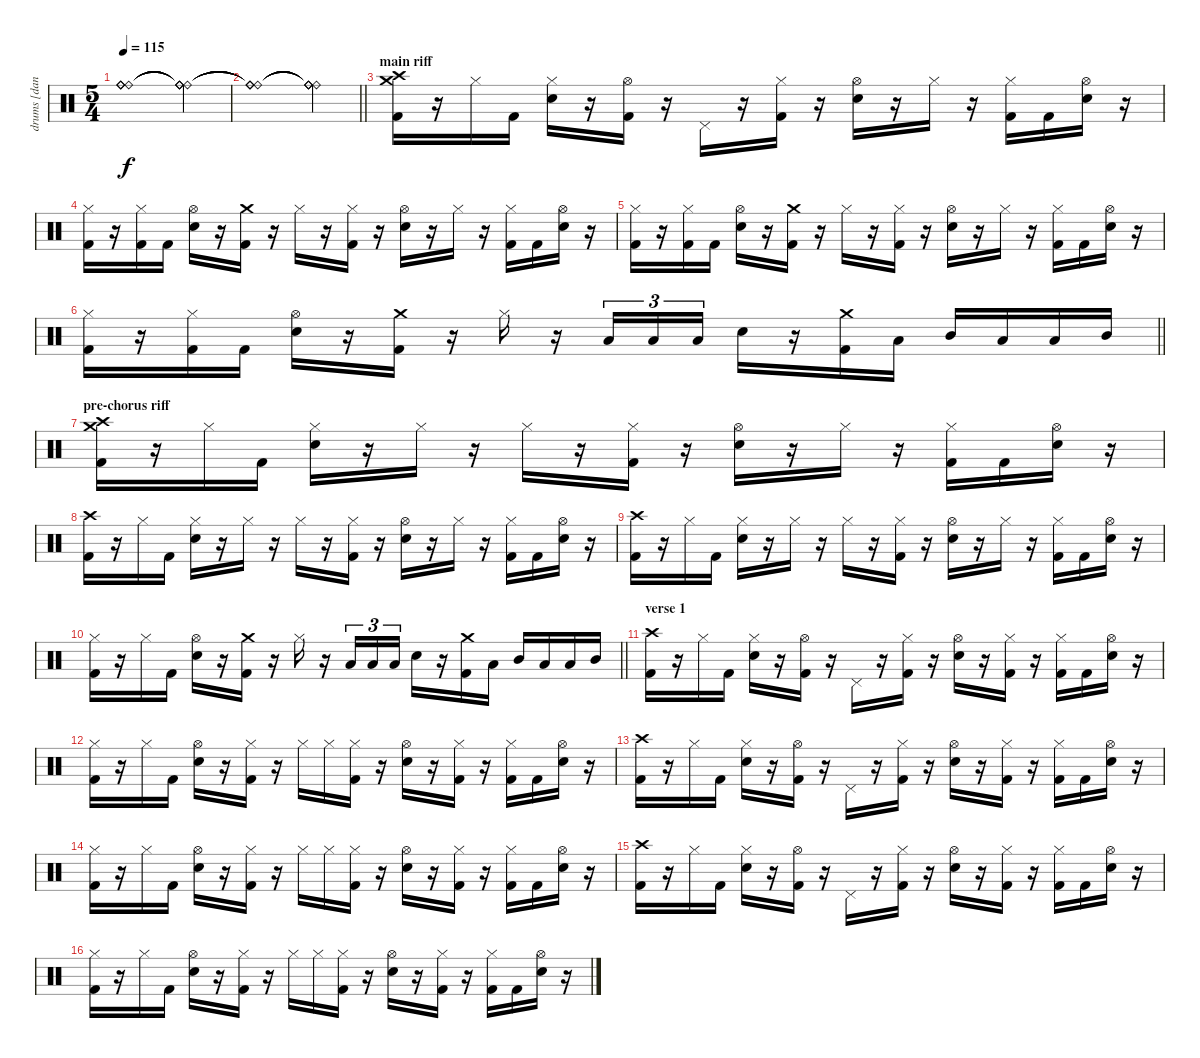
\track ("drums [danny carey]" "drums [dan") {instrument percussion}
\staff {score}
\articulation defaults
\ts (5 4)
\tempo 115
\clef neutral
\ks c
("Ride (bell)"{t} "Ride (bell)"{t} "Ride (bell)"{t} "Ride (bell)"{t}).1{dy f} ("Ride (bell)"{t} "Ride (bell)"{t} "Ride (bell)"{t} "Ride (bell)"{t}).4 |
\barLineRight lightlight
("Ride (bell)"{t} "Ride (bell)"{t} "Ride (bell)"{t} "Ride (bell)"{t}).1 ("Ride (bell)"{t} "Ride (bell)"{t} "Ride (bell)"{t} "Ride (bell)"{t}).4 |
\section ("" "main riff")
("Crash high (hit)" "Crash medium (hit)" "Kick (hit) 2").16{volume 16} r.16 "Hi-Hat (closed)".16 "Kick (hit) 2".16 ("Hi-Hat (closed)" "Electric Snare (hit)").16 r.16 ("Hi-Hat (open)" "Kick (hit) 2").16 r.16 "Pedal Hi-Hat (hit)".16 r.16 ("Hi-Hat (closed)" "Kick (hit) 2").16 r.16 ("Hi-Hat (open)" "Electric Snare (hit)").16 r.16 "Hi-Hat (closed)".16 r.16 ("Hi-Hat (closed)" "Kick (hit) 2").16 "Kick (hit) 2".16 ("Hi-Hat (open)" "Electric Snare (hit)").16 r.16 |
("Hi-Hat (closed)" "Kick (hit) 2").16 r.16 ("Hi-Hat (closed)" "Kick (hit) 2").16 "Kick (hit) 2".16 ("Hi-Hat (open)" "Electric Snare (hit)").16 r.16 ("Crash medium (hit)" "Kick (hit) 2").16 r.16 "Hi-Hat (closed)".16 r.16 ("Hi-Hat (closed)" "Kick (hit) 2").16 r.16 ("Hi-Hat (open)" "Electric Snare (hit)").16 r.16 "Hi-Hat (closed)".16 r.16 ("Hi-Hat (closed)" "Kick (hit) 2").16 "Kick (hit) 2".16 ("Hi-Hat (open)" "Electric Snare (hit)").16 r.16 |
("Hi-Hat (closed)" "Kick (hit) 2").16 r.16 ("Hi-Hat (closed)" "Kick (hit) 2").16 "Kick (hit) 2".16 ("Hi-Hat (open)" "Electric Snare (hit)").16 r.16 ("Crash medium (hit)" "Kick (hit) 2").16 r.16 "Hi-Hat (closed)".16 r.16 ("Hi-Hat (closed)" "Kick (hit) 2").16 r.16 ("Hi-Hat (open)" "Electric Snare (hit)").16 r.16 "Hi-Hat (closed)".16 r.16 ("Hi-Hat (closed)" "Kick (hit) 2").16 "Kick (hit) 2".16 ("Hi-Hat (open)" "Electric Snare (hit)").16 r.16 |
\barLineRight lightlight
("Hi-Hat (closed)" "Kick (hit) 2").16 r.16 ("Hi-Hat (closed)" "Kick (hit) 2").16 "Kick (hit) 2".16 ("Hi-Hat (open)" "Electric Snare (hit)").16 r.16 ("Crash medium (hit)" "Kick (hit) 2").16 r.16 "Hi-Hat (closed)".16 r.16 "Low Tom (hit)".16{tu (3 2)} "Low Tom (hit)".16{tu (3 2)} "Low Tom (hit)".16{tu (3 2)} "Electric Snare (hit)".16 r.16 ("Crash medium (hit)" "Kick (hit) 2").16 "Low Tom (hit)".16 "Mid Tom (hit)".16 "Low Tom (hit)".16 "Low Tom (hit)".16 "Mid Tom (hit)".16 |
\section ("" "pre-chorus riff")
("Crash high (hit)" "Crash medium (hit)" "Kick (hit) 2").16 r.16 "Hi-Hat (closed)".16 "Kick (hit) 2".16 ("Hi-Hat (closed)" "Electric Snare (hit)").16 r.16 "Hi-Hat (closed)".16 r.16 "Hi-Hat (closed)".16 r.16 ("Hi-Hat (closed)" "Kick (hit) 2").16 r.16 ("Hi-Hat (open)" "Electric Snare (hit)").16 r.16 "Hi-Hat (closed)".16 r.16 ("Hi-Hat (closed)" "Kick (hit) 2").16 "Kick (hit) 2".16 ("Hi-Hat (open)" "Electric Snare (hit)").16 r.16 |
("Crash high (hit)" "Kick (hit) 2").16 r.16 "Hi-Hat (closed)".16 "Kick (hit) 2".16 ("Hi-Hat (closed)" "Electric Snare (hit)").16 r.16 "Hi-Hat (closed)".16 r.16 "Hi-Hat (closed)".16 r.16 ("Hi-Hat (closed)" "Kick (hit) 2").16 r.16 ("Hi-Hat (open)" "Electric Snare (hit)").16 r.16 "Hi-Hat (closed)".16 r.16 ("Hi-Hat (closed)" "Kick (hit) 2").16 "Kick (hit) 2".16 ("Hi-Hat (open)" "Electric Snare (hit)").16 r.16 |
("Crash high (hit)" "Kick (hit) 2").16 r.16 "Hi-Hat (closed)".16 "Kick (hit) 2".16 ("Hi-Hat (closed)" "Electric Snare (hit)").16 r.16 "Hi-Hat (closed)".16 r.16 "Hi-Hat (closed)".16 r.16 ("Hi-Hat (closed)" "Kick (hit) 2").16 r.16 ("Hi-Hat (open)" "Electric Snare (hit)").16 r.16 "Hi-Hat (closed)".16 r.16 ("Hi-Hat (closed)" "Kick (hit) 2").16 "Kick (hit) 2".16 ("Hi-Hat (open)" "Electric Snare (hit)").16 r.16 |
\barLineRight lightlight
("Hi-Hat (closed)" "Kick (hit) 2").16 r.16 "Hi-Hat (closed)".16 "Kick (hit) 2".16 ("Hi-Hat (open)" "Electric Snare (hit)").16 r.16 ("Crash medium (hit)" "Kick (hit) 2").16 r.16 "Hi-Hat (closed)".16 r.16 "Low Tom (hit)".16{tu (3 2)} "Low Tom (hit)".16{tu (3 2)} "Low Tom (hit)".16{tu (3 2)} "Electric Snare (hit)".16 r.16 ("Crash medium (hit)" "Kick (hit) 2").16 "Low Tom (hit)".16 "Mid Tom (hit)".16 "Low Tom (hit)".16 "Low Tom (hit)".16 "Mid Tom (hit)".16 |
\section ("" "verse 1")
("Crash high (hit)" "Kick (hit) 2").16 r.16 "Hi-Hat (closed)".16 "Kick (hit) 2".16 ("Hi-Hat (closed)" "Electric Snare (hit)").16 r.16 ("Hi-Hat (open)" "Kick (hit) 2").16 r.16 "Pedal Hi-Hat (hit)".16 r.16 ("Hi-Hat (closed)" "Kick (hit) 2").16 r.16 ("Hi-Hat (open)" "Electric Snare (hit)").16 r.16 ("Hi-Hat (closed)" "Kick (hit) 2").16 r.16 ("Hi-Hat (closed)" "Kick (hit) 2").16 "Kick (hit) 2".16 ("Hi-Hat (open)" "Electric Snare (hit)").16 r.16 |
("Hi-Hat (closed)" "Kick (hit) 2").16 r.16 "Hi-Hat (closed)".16 "Kick (hit) 2".16 ("Hi-Hat (open)" "Electric Snare (hit)").16 r.16 ("Hi-Hat (closed)" "Kick (hit) 2").16 r.16 "Hi-Hat (closed)".16 "Hi-Hat (closed)".16 ("Hi-Hat (closed)" "Kick (hit) 2").16 r.16 ("Hi-Hat (open)" "Electric Snare (hit)").16 r.16 ("Hi-Hat (closed)" "Kick (hit) 2").16 r.16 ("Hi-Hat (closed)" "Kick (hit) 2").16 "Kick (hit) 2".16 ("Hi-Hat (open)" "Electric Snare (hit)").16 r.16 |
("Crash high (hit)" "Kick (hit) 2").16 r.16 "Hi-Hat (closed)".16 "Kick (hit) 2".16 ("Hi-Hat (closed)" "Electric Snare (hit)").16 r.16 ("Hi-Hat (open)" "Kick (hit) 2").16 r.16 "Pedal Hi-Hat (hit)".16 r.16 ("Hi-Hat (closed)" "Kick (hit) 2").16 r.16 ("Hi-Hat (open)" "Electric Snare (hit)").16 r.16 ("Hi-Hat (closed)" "Kick (hit) 2").16 r.16 ("Hi-Hat (closed)" "Kick (hit) 2").16 "Kick (hit) 2".16 ("Hi-Hat (open)" "Electric Snare (hit)").16 r.16 |
("Hi-Hat (closed)" "Kick (hit) 2").16 r.16 "Hi-Hat (closed)".16 "Kick (hit) 2".16 ("Hi-Hat (open)" "Electric Snare (hit)").16 r.16 ("Hi-Hat (closed)" "Kick (hit) 2").16 r.16 "Hi-Hat (closed)".16 "Hi-Hat (closed)".16 ("Hi-Hat (closed)" "Kick (hit) 2").16 r.16 ("Hi-Hat (open)" "Electric Snare (hit)").16 r.16 ("Hi-Hat (closed)" "Kick (hit) 2").16 r.16 ("Hi-Hat (closed)" "Kick (hit) 2").16 "Kick (hit) 2".16 ("Hi-Hat (open)" "Electric Snare (hit)").16 r.16 |
("Crash high (hit)" "Kick (hit) 2").16 r.16 "Hi-Hat (closed)".16 "Kick (hit) 2".16 ("Hi-Hat (closed)" "Electric Snare (hit)").16 r.16 ("Hi-Hat (open)" "Kick (hit) 2").16 r.16 "Pedal Hi-Hat (hit)".16 r.16 ("Hi-Hat (closed)" "Kick (hit) 2").16 r.16 ("Hi-Hat (open)" "Electric Snare (hit)").16 r.16 ("Hi-Hat (closed)" "Kick (hit) 2").16 r.16 ("Hi-Hat (closed)" "Kick (hit) 2").16 "Kick (hit) 2".16 ("Hi-Hat (open)" "Electric Snare (hit)").16 r.16 |
("Hi-Hat (closed)" "Kick (hit) 2").16 r.16 "Hi-Hat (closed)".16 "Kick (hit) 2".16 ("Hi-Hat (open)" "Electric Snare (hit)").16 r.16 ("Hi-Hat (closed)" "Kick (hit) 2").16 r.16 "Hi-Hat (closed)".16 "Hi-Hat (closed)".16 ("Hi-Hat (closed)" "Kick (hit) 2").16 r.16 ("Hi-Hat (open)" "Electric Snare (hit)").16 r.16 ("Hi-Hat (closed)" "Kick (hit) 2").16 r.16 ("Hi-Hat (closed)" "Kick (hit) 2").16 "Kick (hit) 2".16 ("Hi-Hat (open)" "Electric Snare (hit)").16 r.16
